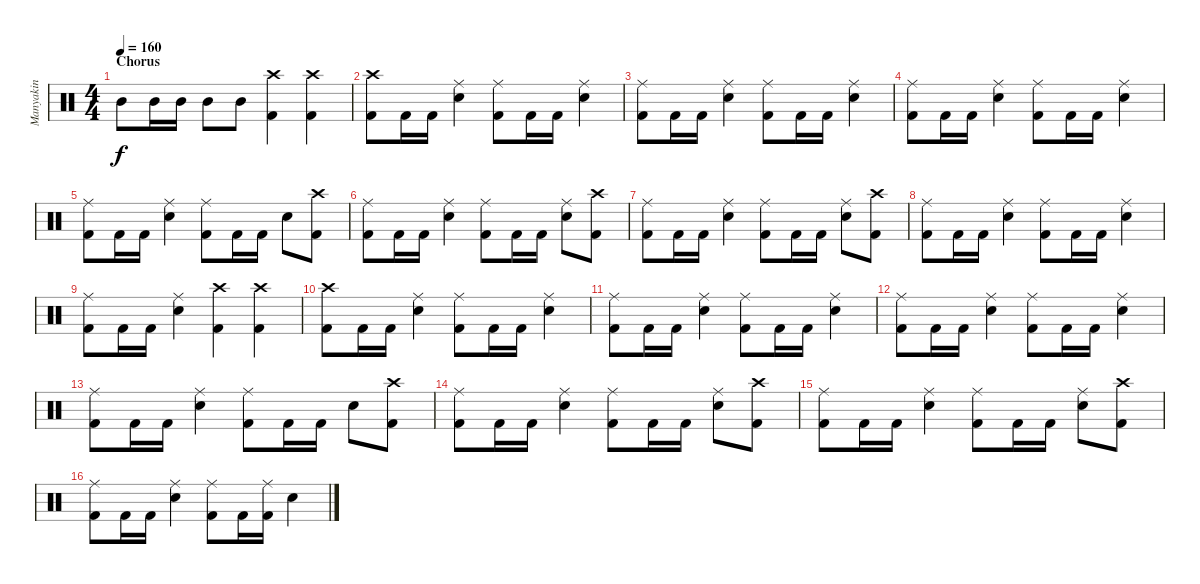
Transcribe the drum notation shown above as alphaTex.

\track ("Manyakin" "Manyakin") {instrument percussion}
\staff {score}
\articulation defaults
\ts (4 4)
\section ("" "Chorus")
\tempo 160
\clef neutral
\ks c "Mid Tom (hit)".8{dy f} "Mid Tom (hit)".16 "Mid Tom (hit)".16 "Mid Tom (hit)".8 "Mid Tom (hit)".8
("Kick (hit) 2" "Crash high (hit)").4 ("Kick (hit) 2" "Crash high (hit)").4 |
("Kick (hit) 2" "Crash high (hit)").8 "Kick (hit) 2".16 "Kick (hit) 2".16 ("Snare (hit) 2" "Ride (middle)").4 ("Kick (hit) 2" "Ride (middle)").8 "Kick (hit) 2".16 "Kick (hit) 2".16 ("Snare (hit) 2" "Ride (middle)").4 |
("Kick (hit) 2" "Ride (middle)").8 "Kick (hit) 2".16 "Kick (hit) 2".16 ("Snare (hit) 2" "Ride (middle)").4 ("Kick (hit) 2" "Ride (middle)").8 "Kick (hit) 2".16 "Kick (hit) 2".16 ("Snare (hit) 2" "Ride (middle)").4 |
("Kick (hit) 2" "Ride (middle)").8 "Kick (hit) 2".16 "Kick (hit) 2".16 ("Snare (hit) 2" "Ride (middle)").4 ("Kick (hit) 2" "Ride (middle)").8 "Kick (hit) 2".16 "Kick (hit) 2".16 ("Snare (hit) 2" "Ride (middle)").4 |
("Kick (hit) 2" "Ride (middle)").8 "Kick (hit) 2".16 "Kick (hit) 2".16 ("Snare (hit) 2" "Ride (middle)").4 ("Kick (hit) 2" "Ride (middle)").8 "Kick (hit) 2".16 "Kick (hit) 2".16 "Snare (hit) 2".8 ("Kick (hit) 2" "Crash high (hit)").8 |
("Kick (hit) 2" "Ride (middle)").8 "Kick (hit) 2".16 "Kick (hit) 2".16 ("Snare (hit) 2" "Ride (middle)").4 ("Kick (hit) 2" "Ride (middle)").8 "Kick (hit) 2".16 "Kick (hit) 2".16 ("Snare (hit) 2" "Ride (middle)").8 ("Kick (hit) 2" "Crash high (hit)").8 |
("Kick (hit) 2" "Ride (middle)").8 "Kick (hit) 2".16 "Kick (hit) 2".16 ("Snare (hit) 2" "Ride (middle)").4 ("Kick (hit) 2" "Ride (middle)").8 "Kick (hit) 2".16 "Kick (hit) 2".16 ("Snare (hit) 2" "Ride (middle)").8 ("Kick (hit) 2" "Crash high (hit)").8 |
("Kick (hit) 2" "Ride (middle)").8 "Kick (hit) 2".16 "Kick (hit) 2".16 ("Snare (hit) 2" "Ride (middle)").4 ("Kick (hit) 2" "Ride (middle)").8 "Kick (hit) 2".16 "Kick (hit) 2".16 ("Snare (hit) 2" "Ride (middle)").4 |
("Kick (hit) 2" "Ride (middle)").8 "Kick (hit) 2".16 "Kick (hit) 2".16 ("Snare (hit) 2" "Ride (middle)").4 ("Kick (hit) 2" "Crash high (hit)").4 ("Kick (hit) 2" "Crash high (hit)").4 |
("Kick (hit) 2" "Crash high (hit)").8 "Kick (hit) 2".16 "Kick (hit) 2".16 ("Snare (hit) 2" "Ride (middle)").4 ("Kick (hit) 2" "Ride (middle)").8 "Kick (hit) 2".16 "Kick (hit) 2".16 ("Snare (hit) 2" "Ride (middle)").4 |
("Kick (hit) 2" "Ride (middle)").8 "Kick (hit) 2".16 "Kick (hit) 2".16 ("Snare (hit) 2" "Ride (middle)").4 ("Kick (hit) 2" "Ride (middle)").8 "Kick (hit) 2".16 "Kick (hit) 2".16 ("Snare (hit) 2" "Ride (middle)").4 |
("Kick (hit) 2" "Ride (middle)").8 "Kick (hit) 2".16 "Kick (hit) 2".16 ("Snare (hit) 2" "Ride (middle)").4 ("Kick (hit) 2" "Ride (middle)").8 "Kick (hit) 2".16 "Kick (hit) 2".16 ("Snare (hit) 2" "Ride (middle)").4 |
("Kick (hit) 2" "Ride (middle)").8 "Kick (hit) 2".16 "Kick (hit) 2".16 ("Snare (hit) 2" "Ride (middle)").4 ("Kick (hit) 2" "Ride (middle)").8 "Kick (hit) 2".16 "Kick (hit) 2".16 "Snare (hit) 2".8 ("Kick (hit) 2" "Crash high (hit)").8 |
("Kick (hit) 2" "Ride (middle)").8 "Kick (hit) 2".16 "Kick (hit) 2".16 ("Snare (hit) 2" "Ride (middle)").4 ("Kick (hit) 2" "Ride (middle)").8 "Kick (hit) 2".16 "Kick (hit) 2".16 ("Snare (hit) 2" "Ride (middle)").8 ("Kick (hit) 2" "Crash high (hit)").8 |
("Kick (hit) 2" "Ride (middle)").8 "Kick (hit) 2".16 "Kick (hit) 2".16 ("Snare (hit) 2" "Ride (middle)").4 ("Kick (hit) 2" "Ride (middle)").8 "Kick (hit) 2".16 "Kick (hit) 2".16 ("Snare (hit) 2" "Ride (middle)").8 ("Kick (hit) 2" "Crash high (hit)").8 |
("Kick (hit) 2" "Ride (middle)").8 "Kick (hit) 2".16 "Kick (hit) 2".16 ("Snare (hit) 2" "Ride (middle)").4 ("Kick (hit) 2" "Ride (middle)").8 "Kick (hit) 2".16 ("Kick (hit) 2" "Ride (middle)").16 "Snare (hit) 2".4
